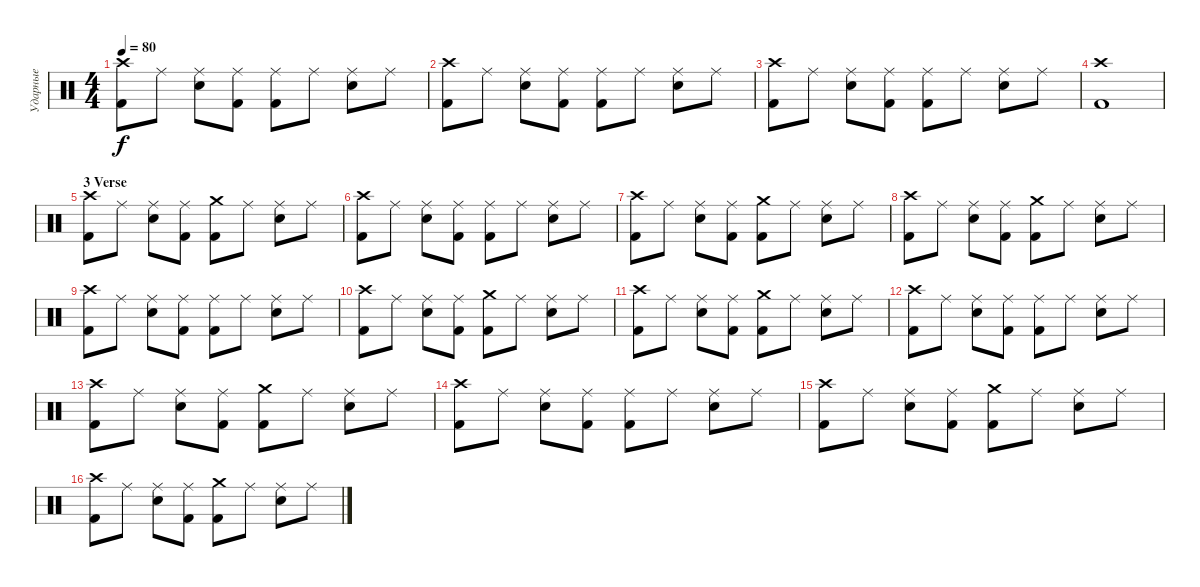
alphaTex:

\track ("Ударные" "Ударные") {instrument percussion}
\staff {score}
\articulation defaults
\ts (4 4)
\tempo 80
\clef neutral
\ks c
("Crash high (hit)" "Kick (hit) 2").8{dy f} "Ride (middle)".8 ("Ride (middle)" "Electric Snare (hit)").8 ("Ride (middle)" "Kick (hit) 2").8 ("Ride (middle)" "Kick (hit) 2").8 "Ride (middle)".8 ("Ride (middle)" "Electric Snare (hit)").8 "Ride (middle)".8 |
("Crash high (hit)" "Kick (hit) 2").8 "Ride (middle)".8 ("Ride (middle)" "Electric Snare (hit)").8 ("Ride (middle)" "Kick (hit) 2").8 ("Ride (middle)" "Kick (hit) 2").8 "Ride (middle)".8 ("Ride (middle)" "Electric Snare (hit)").8 "Ride (middle)".8 |
("Crash high (hit)" "Kick (hit) 2").8 "Ride (middle)".8 ("Ride (middle)" "Electric Snare (hit)").8 ("Ride (middle)" "Kick (hit) 2").8 ("Ride (middle)" "Kick (hit) 2").8 "Ride (middle)".8 ("Ride (middle)" "Electric Snare (hit)").8 "Ride (middle)".8 |
("Crash high (hit)" "Kick (hit) 2").1 |
\section ("" "3 Verse")
("Crash high (hit)" "Kick (hit) 2").8 "Ride (middle)".8 ("Ride (middle)" "Electric Snare (hit)").8 ("Ride (middle)" "Kick (hit) 2").8 ("Crash medium (hit)" "Kick (hit) 2").8 "Ride (middle)".8 ("Ride (middle)" "Electric Snare (hit)").8 "Ride (middle)".8 |
("Crash high (hit)" "Kick (hit) 2").8 "Ride (middle)".8 ("Ride (middle)" "Electric Snare (hit)").8 ("Ride (middle)" "Kick (hit) 2").8 ("Ride (middle)" "Kick (hit) 2").8 "Ride (middle)".8 ("Ride (middle)" "Electric Snare (hit)").8 "Ride (middle)".8 |
("Crash high (hit)" "Kick (hit) 2").8 "Ride (middle)".8 ("Ride (middle)" "Electric Snare (hit)").8 ("Ride (middle)" "Kick (hit) 2").8 ("Crash medium (hit)" "Kick (hit) 2").8 "Ride (middle)".8 ("Ride (middle)" "Electric Snare (hit)").8 "Ride (middle)".8 |
("Crash high (hit)" "Kick (hit) 2").8 "Ride (middle)".8 ("Ride (middle)" "Electric Snare (hit)").8 ("Ride (middle)" "Kick (hit) 2").8 ("Crash medium (hit)" "Kick (hit) 2").8 "Ride (middle)".8 ("Ride (middle)" "Electric Snare (hit)").8 "Ride (middle)".8 |
("Crash high (hit)" "Kick (hit) 2").8 "Ride (middle)".8 ("Ride (middle)" "Electric Snare (hit)").8 ("Ride (middle)" "Kick (hit) 2").8 ("Ride (middle)" "Kick (hit) 2").8 "Ride (middle)".8 ("Ride (middle)" "Electric Snare (hit)").8 "Ride (middle)".8 |
("Crash high (hit)" "Kick (hit) 2").8 "Ride (middle)".8 ("Ride (middle)" "Electric Snare (hit)").8 ("Ride (middle)" "Kick (hit) 2").8 ("Crash medium (hit)" "Kick (hit) 2").8 "Ride (middle)".8 ("Ride (middle)" "Electric Snare (hit)").8 "Ride (middle)".8 |
("Crash high (hit)" "Kick (hit) 2").8 "Ride (middle)".8 ("Ride (middle)" "Electric Snare (hit)").8 ("Ride (middle)" "Kick (hit) 2").8 ("Crash medium (hit)" "Kick (hit) 2").8 "Ride (middle)".8 ("Ride (middle)" "Electric Snare (hit)").8 "Ride (middle)".8 |
("Crash high (hit)" "Kick (hit) 2").8 "Ride (middle)".8 ("Ride (middle)" "Electric Snare (hit)").8 ("Ride (middle)" "Kick (hit) 2").8 ("Ride (middle)" "Kick (hit) 2").8 "Ride (middle)".8 ("Ride (middle)" "Electric Snare (hit)").8 "Ride (middle)".8 |
("Crash high (hit)" "Kick (hit) 2").8 "Ride (middle)".8 ("Ride (middle)" "Electric Snare (hit)").8 ("Ride (middle)" "Kick (hit) 2").8 ("Crash medium (hit)" "Kick (hit) 2").8 "Ride (middle)".8 ("Ride (middle)" "Electric Snare (hit)").8 "Ride (middle)".8 |
("Crash high (hit)" "Kick (hit) 2").8 "Ride (middle)".8 ("Ride (middle)" "Electric Snare (hit)").8 ("Ride (middle)" "Kick (hit) 2").8 ("Ride (middle)" "Kick (hit) 2").8 "Ride (middle)".8 ("Ride (middle)" "Electric Snare (hit)").8 "Ride (middle)".8 |
("Crash high (hit)" "Kick (hit) 2").8 "Ride (middle)".8 ("Ride (middle)" "Electric Snare (hit)").8 ("Ride (middle)" "Kick (hit) 2").8 ("Crash medium (hit)" "Kick (hit) 2").8 "Ride (middle)".8 ("Ride (middle)" "Electric Snare (hit)").8 "Ride (middle)".8 |
("Crash high (hit)" "Kick (hit) 2").8 "Ride (middle)".8 ("Ride (middle)" "Electric Snare (hit)").8 ("Ride (middle)" "Kick (hit) 2").8 ("Crash medium (hit)" "Kick (hit) 2").8 "Ride (middle)".8 ("Ride (middle)" "Electric Snare (hit)").8 "Ride (middle)".8
